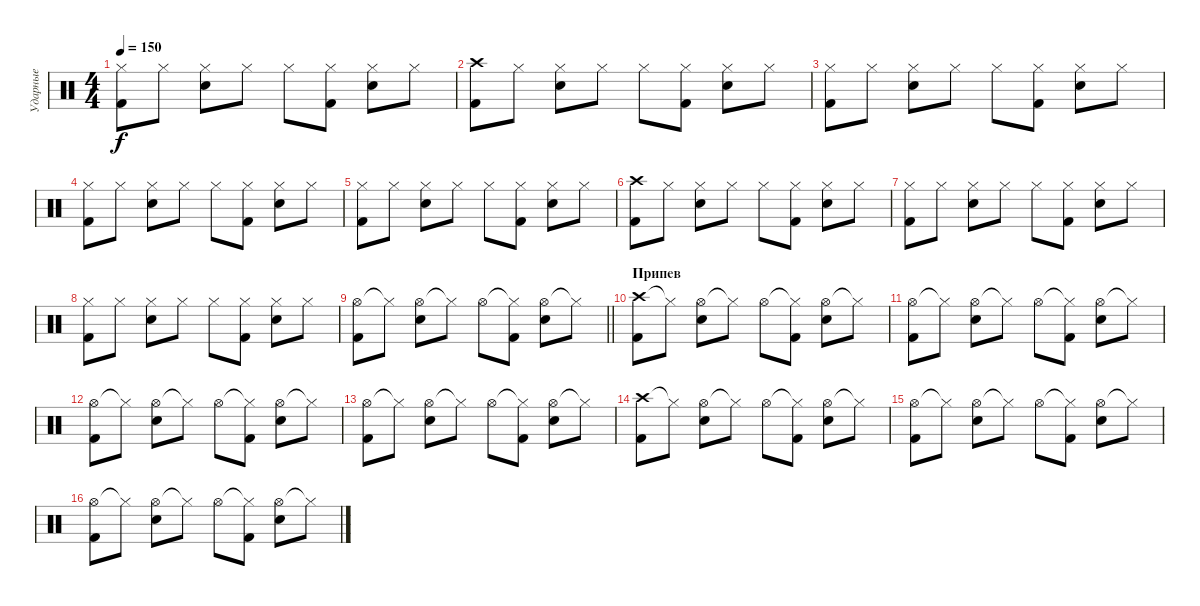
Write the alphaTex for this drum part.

\track ("Ударные" "Ударные") {instrument percussion}
\staff {score}
\articulation defaults
\ts (4 4)
\tempo 150
\clef neutral
\ks c
("Hi-Hat (closed)" "Kick (hit) 2").8{dy f} "Hi-Hat (closed)".8 ("Hi-Hat (closed)" "Snare (hit) 2").8 "Hi-Hat (closed)".8 "Hi-Hat (closed)".8 ("Hi-Hat (closed)" "Kick (hit) 2").8 ("Hi-Hat (closed)" "Snare (hit) 2").8 "Hi-Hat (closed)".8 |
("Crash high (hit)" "Kick (hit) 2").8 "Hi-Hat (closed)".8 ("Hi-Hat (closed)" "Snare (hit) 2").8 "Hi-Hat (closed)".8 "Hi-Hat (closed)".8 ("Hi-Hat (closed)" "Kick (hit) 2").8 ("Hi-Hat (closed)" "Snare (hit) 2").8 "Hi-Hat (closed)".8 |
("Hi-Hat (closed)" "Kick (hit) 2").8 "Hi-Hat (closed)".8 ("Hi-Hat (closed)" "Snare (hit) 2").8 "Hi-Hat (closed)".8 "Hi-Hat (closed)".8 ("Hi-Hat (closed)" "Kick (hit) 2").8 ("Hi-Hat (closed)" "Snare (hit) 2").8 "Hi-Hat (closed)".8 |
("Hi-Hat (closed)" "Kick (hit) 2").8 "Hi-Hat (closed)".8 ("Hi-Hat (closed)" "Snare (hit) 2").8 "Hi-Hat (closed)".8 "Hi-Hat (closed)".8 ("Hi-Hat (closed)" "Kick (hit) 2").8 ("Hi-Hat (closed)" "Snare (hit) 2").8 "Hi-Hat (closed)".8 |
("Hi-Hat (closed)" "Kick (hit) 2").8 "Hi-Hat (closed)".8 ("Hi-Hat (closed)" "Snare (hit) 2").8 "Hi-Hat (closed)".8 "Hi-Hat (closed)".8 ("Hi-Hat (closed)" "Kick (hit) 2").8 ("Hi-Hat (closed)" "Snare (hit) 2").8 "Hi-Hat (closed)".8 |
("Crash high (hit)" "Kick (hit) 2").8 "Hi-Hat (closed)".8 ("Hi-Hat (closed)" "Snare (hit) 2").8 "Hi-Hat (closed)".8 "Hi-Hat (closed)".8 ("Hi-Hat (closed)" "Kick (hit) 2").8 ("Hi-Hat (closed)" "Snare (hit) 2").8 "Hi-Hat (closed)".8 |
("Hi-Hat (closed)" "Kick (hit) 2").8 "Hi-Hat (closed)".8 ("Hi-Hat (closed)" "Snare (hit) 2").8 "Hi-Hat (closed)".8 "Hi-Hat (closed)".8 ("Hi-Hat (closed)" "Kick (hit) 2").8 ("Hi-Hat (closed)" "Snare (hit) 2").8 "Hi-Hat (closed)".8 |
("Hi-Hat (closed)" "Kick (hit) 2").8 "Hi-Hat (closed)".8 ("Hi-Hat (closed)" "Snare (hit) 2").8 "Hi-Hat (closed)".8 "Hi-Hat (closed)".8 ("Hi-Hat (closed)" "Kick (hit) 2").8 ("Hi-Hat (closed)" "Snare (hit) 2").8 "Hi-Hat (closed)".8 |
\barLineRight lightlight
("Hi-Hat (open)" "Kick (hit) 2").8 "Hi-Hat (closed)"{t}.8 ("Hi-Hat (open)" "Snare (hit) 2").8 "Hi-Hat (closed)"{t}.8 "Hi-Hat (open)".8 ("Hi-Hat (closed)"{t} "Kick (hit) 2").8 ("Hi-Hat (open)" "Snare (hit) 2").8 "Hi-Hat (closed)"{t}.8 |
\section ("" "Припев")
("Crash high (hit)" "Kick (hit) 2").8 "Hi-Hat (closed)"{t}.8 ("Hi-Hat (open)" "Snare (hit) 2").8 "Hi-Hat (closed)"{t}.8 "Hi-Hat (open)".8 ("Hi-Hat (closed)"{t} "Kick (hit) 2").8 ("Hi-Hat (open)" "Snare (hit) 2").8 "Hi-Hat (closed)"{t}.8 |
("Hi-Hat (open)" "Kick (hit) 2").8 "Hi-Hat (closed)"{t}.8 ("Hi-Hat (open)" "Snare (hit) 2").8 "Hi-Hat (closed)"{t}.8 "Hi-Hat (open)".8 ("Hi-Hat (closed)"{t} "Kick (hit) 2").8 ("Hi-Hat (open)" "Snare (hit) 2").8 "Hi-Hat (closed)"{t}.8 |
("Hi-Hat (open)" "Kick (hit) 2").8 "Hi-Hat (closed)"{t}.8 ("Hi-Hat (open)" "Snare (hit) 2").8 "Hi-Hat (closed)"{t}.8 "Hi-Hat (open)".8 ("Hi-Hat (closed)"{t} "Kick (hit) 2").8 ("Hi-Hat (open)" "Snare (hit) 2").8 "Hi-Hat (closed)"{t}.8 |
("Hi-Hat (open)" "Kick (hit) 2").8 "Hi-Hat (closed)"{t}.8 ("Hi-Hat (open)" "Snare (hit) 2").8 "Hi-Hat (closed)"{t}.8 "Hi-Hat (open)".8 ("Hi-Hat (closed)"{t} "Kick (hit) 2").8 ("Hi-Hat (open)" "Snare (hit) 2").8 "Hi-Hat (closed)"{t}.8 |
("Crash high (hit)" "Kick (hit) 2").8 "Hi-Hat (closed)"{t}.8 ("Hi-Hat (open)" "Snare (hit) 2").8 "Hi-Hat (closed)"{t}.8 "Hi-Hat (open)".8 ("Hi-Hat (closed)"{t} "Kick (hit) 2").8 ("Hi-Hat (open)" "Snare (hit) 2").8 "Hi-Hat (closed)"{t}.8 |
("Hi-Hat (open)" "Kick (hit) 2").8 "Hi-Hat (closed)"{t}.8 ("Hi-Hat (open)" "Snare (hit) 2").8 "Hi-Hat (closed)"{t}.8 "Hi-Hat (open)".8 ("Hi-Hat (closed)"{t} "Kick (hit) 2").8 ("Hi-Hat (open)" "Snare (hit) 2").8 "Hi-Hat (closed)"{t}.8 |
("Hi-Hat (open)" "Kick (hit) 2").8 "Hi-Hat (closed)"{t}.8 ("Hi-Hat (open)" "Snare (hit) 2").8 "Hi-Hat (closed)"{t}.8 "Hi-Hat (open)".8 ("Hi-Hat (closed)"{t} "Kick (hit) 2").8 ("Hi-Hat (open)" "Snare (hit) 2").8 "Hi-Hat (closed)"{t}.8
